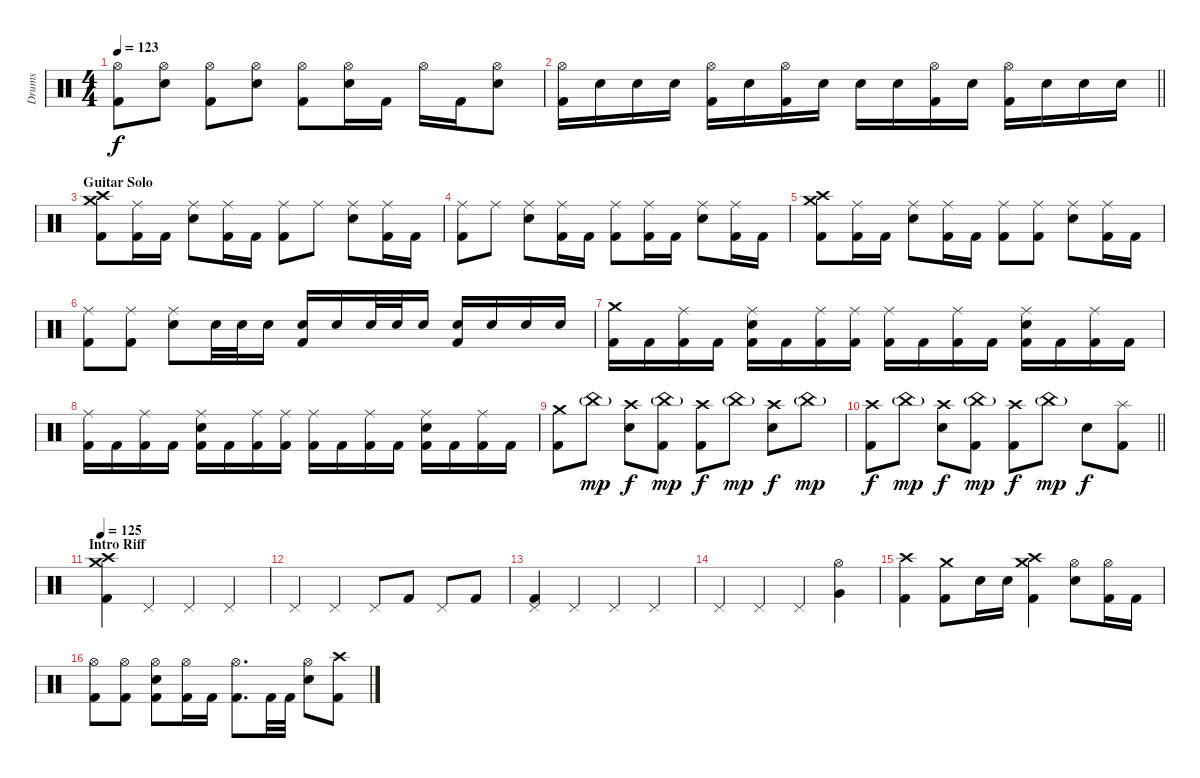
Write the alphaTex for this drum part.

\track ("Drums" "Drums") {instrument percussion}
\staff {score}
\articulation defaults
\ts (4 4)
\tempo 123
\clef neutral
\ks c
("Hi-Hat (open)" "Kick (hit) 2").8{dy f} ("Hi-Hat (open)" "Electric Snare (hit)").8 ("Hi-Hat (open)" "Kick (hit) 2").8 ("Hi-Hat (open)" "Electric Snare (hit)").8 ("Hi-Hat (open)" "Kick (hit) 2").8 ("Hi-Hat (open)" "Electric Snare (hit)").16 "Kick (hit) 2".16 "Hi-Hat (open)".16 "Kick (hit) 2".16 ("Hi-Hat (open)" "Electric Snare (hit)").8 |
\barLineRight lightlight
("Hi-Hat (open)" "Kick (hit) 2").16 "Electric Snare (hit)".16 "Electric Snare (hit)".16 "Electric Snare (hit)".16 ("Hi-Hat (open)" "Kick (hit) 2").16 "Electric Snare (hit)".16 ("Hi-Hat (open)" "Kick (hit) 2").16 "Electric Snare (hit)".16 "Electric Snare (hit)".16 "Electric Snare (hit)".16 ("Hi-Hat (open)" "Kick (hit) 2").16 "Electric Snare (hit)".16 ("Hi-Hat (open)" "Kick (hit) 2").16 "Electric Snare (hit)".16 "Electric Snare (hit)".16 "Electric Snare (hit)".16 |
\section ("" "Guitar Solo")
("Crash medium (hit)" "Crash high (hit)" "Kick (hit) 2").8 ("Ride (middle)" "Kick (hit) 2").16 "Kick (hit) 2".16 ("Ride (middle)" "Electric Snare (hit)").8 ("Ride (middle)" "Kick (hit) 2").16 "Kick (hit) 2".16 ("Ride (middle)" "Kick (hit) 2").8 "Ride (middle)".8 ("Ride (middle)" "Electric Snare (hit)").8 ("Ride (middle)" "Kick (hit) 2").16 "Kick (hit) 2".16 |
("Ride (middle)" "Kick (hit) 2").8 "Ride (middle)".8 ("Ride (middle)" "Electric Snare (hit)").8 ("Ride (middle)" "Kick (hit) 2").16 "Kick (hit) 2".16 ("Ride (middle)" "Kick (hit) 2").8 ("Ride (middle)" "Kick (hit) 2").16 "Kick (hit) 2".16 ("Ride (middle)" "Electric Snare (hit)").8 ("Ride (middle)" "Kick (hit) 2").16 "Kick (hit) 2".16 |
("Crash medium (hit)" "Crash high (hit)" "Kick (hit) 2").8 ("Ride (middle)" "Kick (hit) 2").16 "Kick (hit) 2".16 ("Ride (middle)" "Electric Snare (hit)").8 ("Ride (middle)" "Kick (hit) 2").16 "Kick (hit) 2".16 ("Ride (middle)" "Kick (hit) 2").8 ("Ride (middle)" "Kick (hit) 2").8 ("Ride (middle)" "Electric Snare (hit)").8 ("Ride (middle)" "Kick (hit) 2").16 "Kick (hit) 2".16 |
("Ride (middle)" "Kick (hit) 2").8 ("Ride (middle)" "Kick (hit) 2").8 ("Ride (middle)" "Electric Snare (hit)").8 "Electric Snare (hit)".32 "Electric Snare (hit)".32 "Electric Snare (hit)".16 ("Electric Snare (hit)" "Kick (hit) 2").16 "Electric Snare (hit)".16 "Electric Snare (hit)".32 "Electric Snare (hit)".32 "Electric Snare (hit)".16 ("Electric Snare (hit)" "Kick (hit) 2").16 "Electric Snare (hit)".16 "Electric Snare (hit)".16 "Electric Snare (hit)".16 |
("Crash medium (hit)" "Kick (hit) 2").16 "Kick (hit) 2".16 ("Ride (middle)" "Kick (hit) 2").16 "Kick (hit) 2".16 ("Ride (middle)" "Electric Snare (hit)" "Kick (hit) 2").16 "Kick (hit) 2".16 ("Ride (middle)" "Kick (hit) 2").16 ("Ride (middle)" "Kick (hit) 2").16 ("Ride (middle)" "Kick (hit) 2").16 "Kick (hit) 2".16 ("Ride (middle)" "Kick (hit) 2").16 "Kick (hit) 2".16 ("Ride (middle)" "Electric Snare (hit)" "Kick (hit) 2").16 "Kick (hit) 2".16 ("Ride (middle)" "Kick (hit) 2").16 "Kick (hit) 2".16 |
("Ride (middle)" "Kick (hit) 2").16 "Kick (hit) 2".16 ("Ride (middle)" "Kick (hit) 2").16 "Kick (hit) 2".16 ("Ride (middle)" "Electric Snare (hit)" "Kick (hit) 2").16 "Kick (hit) 2".16 ("Ride (middle)" "Kick (hit) 2").16 ("Ride (middle)" "Kick (hit) 2").16 ("Ride (middle)" "Kick (hit) 2").16 "Kick (hit) 2".16 ("Ride (middle)" "Kick (hit) 2").16 "Kick (hit) 2".16 ("Ride (middle)" "Electric Snare (hit)" "Kick (hit) 2").16 "Kick (hit) 2".16 ("Ride (middle)" "Kick (hit) 2").16 "Kick (hit) 2".16 |
("Crash medium (hit)" "Kick (hit) 2").8 "China (hit)"{g}.8{dy mp} ("Crash high (hit)" "Electric Snare (hit)").8{dy f} ("China (hit)"{g} "Kick (hit) 2").8{dy mp} ("Crash high (hit)" "Kick (hit) 2").8{dy f} "China (hit)"{g}.8{dy mp} ("Crash high (hit)" "Electric Snare (hit)").8{dy f} "China (hit)"{g}.8{dy mp} |
\barLineRight lightlight
("Crash high (hit)" "Kick (hit) 2").8{dy f} "China (hit)"{g}.8{dy mp} ("Crash high (hit)" "Electric Snare (hit)").8{dy f} ("China (hit)"{g} "Kick (hit) 2").8{dy mp} ("Crash high (hit)" "Kick (hit) 2").8{dy f} "China (hit)"{g}.8{dy mp} "Electric Snare (hit)".8{dy f} ("Splash (hit)" "Kick (hit) 2").8 |
\section ("" "Intro Riff")
\tempo 125
("Crash medium (hit)" "Crash high (hit)" "Kick (hit) 2").4{volume 14} "Pedal Hi-Hat (hit)".4 "Pedal Hi-Hat (hit)".4 "Pedal Hi-Hat (hit)".4 |
"Pedal Hi-Hat (hit)".4 "Pedal Hi-Hat (hit)".4 "Pedal Hi-Hat (hit)".8 "Kick (hit) 2".8 "Pedal Hi-Hat (hit)".8 "Kick (hit) 2".8 |
("Pedal Hi-Hat (hit)" "Kick (hit) 2").4 "Pedal Hi-Hat (hit)".4 "Pedal Hi-Hat (hit)".4 "Pedal Hi-Hat (hit)".4 |
"Pedal Hi-Hat (hit)".4 "Pedal Hi-Hat (hit)".4 "Pedal Hi-Hat (hit)".4 ("Hi-Hat (open)" "Very Low Tom (hit)").4 |
("Crash high (hit)" "Kick (hit) 2").4{volume 16} ("Crash medium (hit)" "Kick (hit) 2").8 "Electric Snare (hit)".16 "Electric Snare (hit)".16 ("Crash medium (hit)" "Crash high (hit)" "Kick (hit) 2").4 ("Hi-Hat (open)" "Electric Snare (hit)").8 ("Hi-Hat (open)" "Kick (hit) 2").16 "Kick (hit) 2".16 |
("Hi-Hat (open)" "Kick (hit) 2").8 ("Hi-Hat (open)" "Kick (hit) 2").8 ("Hi-Hat (open)" "Electric Snare (hit)" "Kick (hit) 2").8 ("Hi-Hat (open)" "Kick (hit) 2").16 "Kick (hit) 2".16 ("Hi-Hat (open)" "Kick (hit) 2").8{d} "Kick (hit) 2".32 "Kick (hit) 2".32 ("Hi-Hat (open)" "Electric Snare (hit)").8 ("Crash high (hit)" "Kick (hit) 2").8
